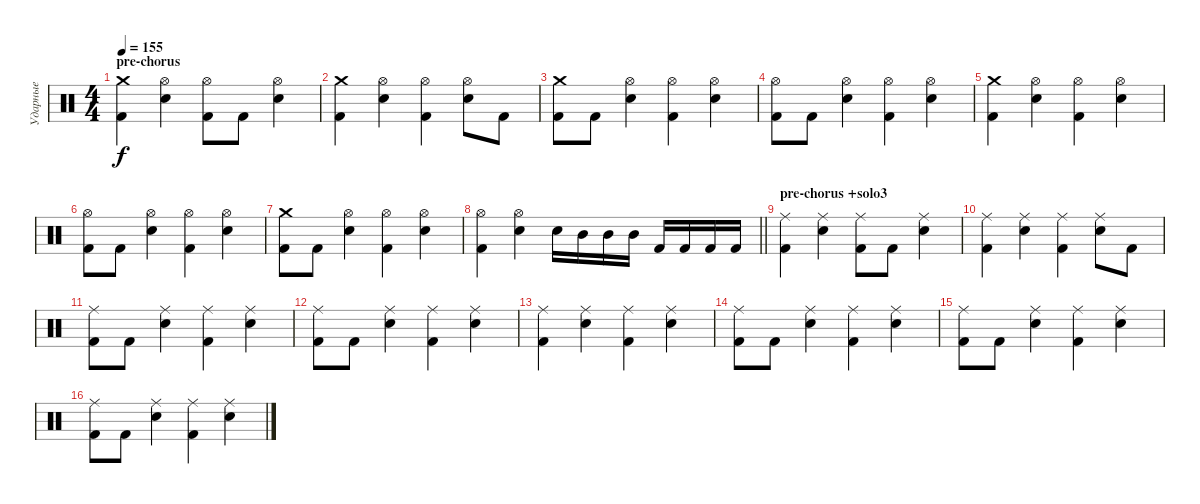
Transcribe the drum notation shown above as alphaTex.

\track ("Ударные" "Ударные") {instrument percussion}
\staff {score}
\articulation defaults
\ts (4 4)
\section ("" "pre-chorus")
\tempo 155
\clef neutral
\ks c
("Crash medium (hit)" "Kick (hit) 2").4{dy f} ("Hi-Hat (open)" "Electric Snare (hit)").4 ("Hi-Hat (open)" "Kick (hit) 2").8 "Kick (hit) 2".8 ("Hi-Hat (open)" "Electric Snare (hit)").4 |
("Crash medium (hit)" "Kick (hit) 2").4 ("Hi-Hat (open)" "Electric Snare (hit)").4 ("Hi-Hat (open)" "Kick (hit) 2").4 ("Hi-Hat (open)" "Electric Snare (hit)").8 "Kick (hit) 2".8 |
("Crash medium (hit)" "Kick (hit) 2").8 "Kick (hit) 2".8 ("Hi-Hat (open)" "Electric Snare (hit)").4 ("Hi-Hat (open)" "Kick (hit) 2").4 ("Hi-Hat (open)" "Electric Snare (hit)").4 |
("Hi-Hat (open)" "Kick (hit) 2").8 "Kick (hit) 2".8 ("Hi-Hat (open)" "Electric Snare (hit)").4 ("Hi-Hat (open)" "Kick (hit) 2").4 ("Hi-Hat (open)" "Electric Snare (hit)").4 |
("Crash medium (hit)" "Kick (hit) 2").4 ("Hi-Hat (open)" "Electric Snare (hit)").4 ("Hi-Hat (open)" "Kick (hit) 2").4 ("Hi-Hat (open)" "Electric Snare (hit)").4 |
("Hi-Hat (open)" "Kick (hit) 2").8 "Kick (hit) 2".8 ("Hi-Hat (open)" "Electric Snare (hit)").4 ("Hi-Hat (open)" "Kick (hit) 2").4 ("Hi-Hat (open)" "Electric Snare (hit)").4 |
("Crash medium (hit)" "Kick (hit) 2").8 "Kick (hit) 2".8 ("Hi-Hat (open)" "Electric Snare (hit)").4 ("Hi-Hat (open)" "Kick (hit) 2").4 ("Hi-Hat (open)" "Electric Snare (hit)").4 |
\barLineRight lightlight
("Hi-Hat (open)" "Kick (hit) 2").4 ("Hi-Hat (open)" "Electric Snare (hit)").4 "Electric Snare (hit)".16 "Mid Tom (hit)".16 "Mid Tom (hit)".16 "Mid Tom (hit)".16 "Kick (hit) 2".16 "Kick (hit) 2".16 "Kick (hit) 2".16 "Kick (hit) 2".16 |
\section ("" "pre-chorus +solo3")
("Ride (middle)" "Kick (hit) 2").4 ("Ride (middle)" "Electric Snare (hit)").4 ("Ride (middle)" "Kick (hit) 2").8 "Kick (hit) 2".8 ("Ride (middle)" "Electric Snare (hit)").4 |
("Ride (middle)" "Kick (hit) 2").4 ("Ride (middle)" "Electric Snare (hit)").4 ("Ride (middle)" "Kick (hit) 2").4 ("Ride (middle)" "Electric Snare (hit)").8 "Kick (hit) 2".8 |
("Ride (middle)" "Kick (hit) 2").8 "Kick (hit) 2".8 ("Ride (middle)" "Electric Snare (hit)").4 ("Ride (middle)" "Kick (hit) 2").4 ("Ride (middle)" "Electric Snare (hit)").4 |
("Ride (middle)" "Kick (hit) 2").8 "Kick (hit) 2".8 ("Ride (middle)" "Electric Snare (hit)").4 ("Ride (middle)" "Kick (hit) 2").4 ("Ride (middle)" "Electric Snare (hit)").4 |
("Ride (middle)" "Kick (hit) 2").4 ("Ride (middle)" "Electric Snare (hit)").4 ("Ride (middle)" "Kick (hit) 2").4 ("Ride (middle)" "Electric Snare (hit)").4 |
("Ride (middle)" "Kick (hit) 2").8 "Kick (hit) 2".8 ("Ride (middle)" "Electric Snare (hit)").4 ("Ride (middle)" "Kick (hit) 2").4 ("Ride (middle)" "Electric Snare (hit)").4 |
("Ride (middle)" "Kick (hit) 2").8 "Kick (hit) 2".8 ("Ride (middle)" "Electric Snare (hit)").4 ("Ride (middle)" "Kick (hit) 2").4 ("Ride (middle)" "Electric Snare (hit)").4 |
("Ride (middle)" "Kick (hit) 2").8 "Kick (hit) 2".8 ("Ride (middle)" "Electric Snare (hit)").4 ("Ride (middle)" "Kick (hit) 2").4 ("Ride (middle)" "Electric Snare (hit)").4
